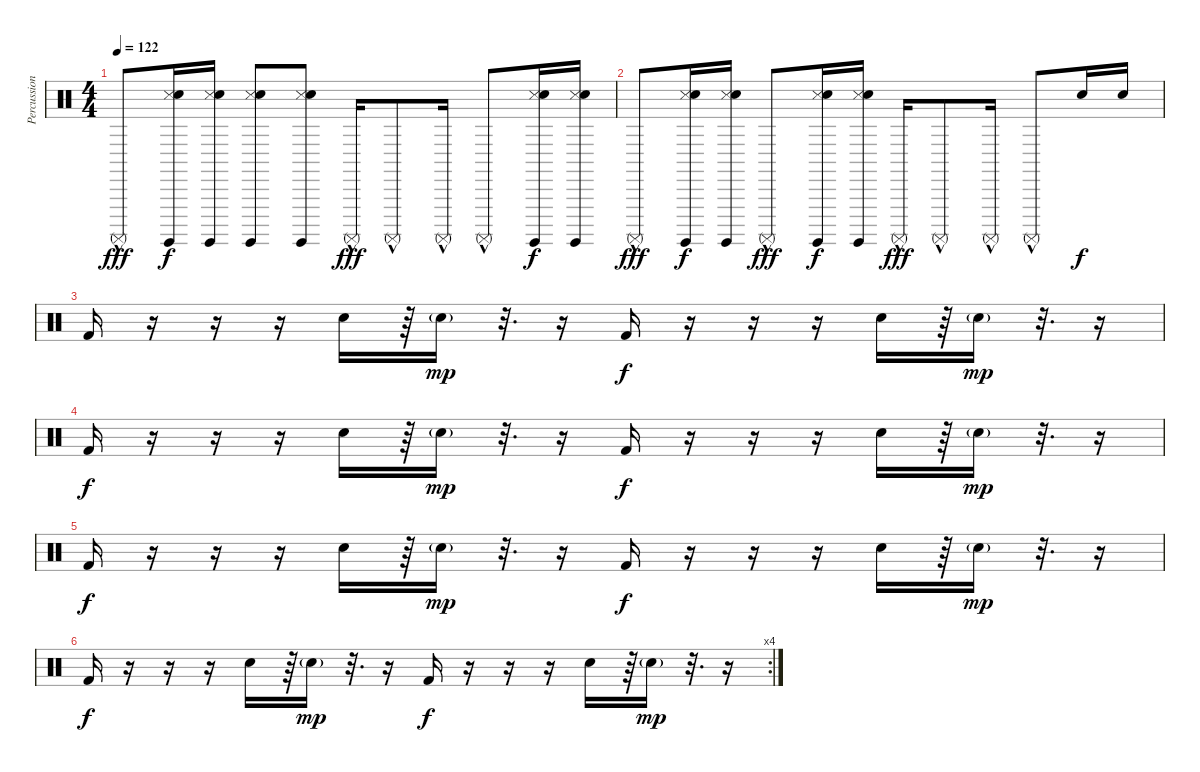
\track ("Percussion" "Percussion") {instrument percussion}
\staff {score}
\articulation defaults
\ts (4 4)
\tempo 122
\clef neutral
\ks c "Surdo (mute)"{hac}.8{dy fff}
("Surdo (hit)" "Snare (side stick) 3" "Hand Clap (hit)").16{dy f} ("Surdo (hit)" "Snare (side stick) 3" "Hand Clap (hit)").16 ("Surdo (hit)" "Snare (side stick) 3" "Hand Clap (hit)").8 ("Surdo (hit)" "Snare (side stick) 3" "Hand Clap (hit)").8 "Surdo (mute)"{hac}.16{dy fff} "Surdo (mute)"{hac}.8 "Surdo (mute)"{hac}.16 "Surdo (mute)"{hac}.8 ("Surdo (hit)" "Snare (side stick) 3" "Hand Clap (hit)").16{dy f} ("Surdo (hit)" "Snare (side stick) 3" "Hand Clap (hit)").16 |
"Surdo (mute)"{hac}.8{dy fff} ("Surdo (hit)" "Snare (side stick) 3" "Hand Clap (hit)").16{dy f} ("Surdo (hit)" "Snare (side stick) 3" "Hand Clap (hit)").16 "Surdo (mute)"{hac}.8{dy fff} ("Surdo (hit)" "Snare (side stick) 3" "Hand Clap (hit)").16{dy f} ("Surdo (hit)" "Snare (side stick) 3" "Hand Clap (hit)").16 "Surdo (mute)"{hac}.16{dy fff} "Surdo (mute)"{hac}.8 "Surdo (mute)"{hac}.16 "Surdo (mute)"{hac}.8 "Electric Snare (hit)".16{dy f} "Electric Snare (hit)".16 |
"Kick (hit) 2".16 r.16 r.16 r.16 "Electric Snare (hit)".16 r.64 "Electric Snare (hit)"{g}.16{dy mp} r.32{d} r.16 "Kick (hit) 2".16{dy f} r.16 r.16 r.16 "Electric Snare (hit)".16 r.64 "Electric Snare (hit)"{g}.16{dy mp} r.32{d} r.16 |
"Kick (hit) 2".16{dy f} r.16 r.16 r.16 "Electric Snare (hit)".16 r.64 "Electric Snare (hit)"{g}.16{dy mp} r.32{d} r.16 "Kick (hit) 2".16{dy f} r.16 r.16 r.16 "Electric Snare (hit)".16 r.64 "Electric Snare (hit)"{g}.16{dy mp} r.32{d} r.16 |
"Kick (hit) 2".16{dy f} r.16 r.16 r.16 "Electric Snare (hit)".16 r.64 "Electric Snare (hit)"{g}.16{dy mp} r.32{d} r.16 "Kick (hit) 2".16{dy f} r.16 r.16 r.16 "Electric Snare (hit)".16 r.64 "Electric Snare (hit)"{g}.16{dy mp} r.32{d} r.16 |
\rc 4 "Kick (hit) 2".16{dy f}
r.16 r.16 r.16 "Electric Snare (hit)".16 r.64 "Electric Snare (hit)"{g}.16{dy mp} r.32{d} r.16 "Kick (hit) 2".16{dy f} r.16 r.16 r.16 "Electric Snare (hit)".16 r.64 "Electric Snare (hit)"{g}.16{dy mp} r.32{d} r.16
